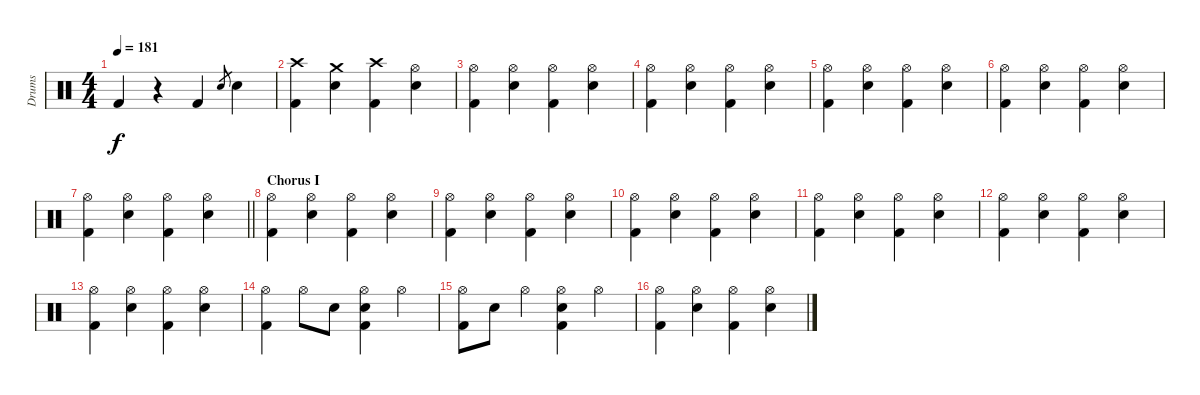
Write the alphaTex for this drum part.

\track ("Drums" "Drums") {instrument percussion}
\staff {score}
\articulation defaults
\ts (4 4)
\tempo 181
\clef neutral
\ks c "Kick (hit) 2".4{dy f}
r.4 "Kick (hit) 2".4 "Snare (hit) 2".8{gr} "Snare (hit) 2".4 |
("Crash high (hit)" "Kick (hit) 2").4 ("Crash medium (hit)" "Snare (hit) 2").4 ("Crash high (hit)" "Kick (hit) 2").4 ("Hi-Hat (open)" "Snare (hit) 2").4 |
("Hi-Hat (open)" "Kick (hit) 2").4 ("Hi-Hat (open)" "Snare (hit) 2").4 ("Hi-Hat (open)" "Kick (hit) 2").4 ("Hi-Hat (open)" "Snare (hit) 2").4 |
("Hi-Hat (open)" "Kick (hit) 2").4 ("Hi-Hat (open)" "Snare (hit) 2").4 ("Hi-Hat (open)" "Kick (hit) 2").4 ("Hi-Hat (open)" "Snare (hit) 2").4 |
("Hi-Hat (open)" "Kick (hit) 2").4 ("Hi-Hat (open)" "Snare (hit) 2").4 ("Hi-Hat (open)" "Kick (hit) 2").4 ("Hi-Hat (open)" "Snare (hit) 2").4 |
("Hi-Hat (open)" "Kick (hit) 2").4 ("Hi-Hat (open)" "Snare (hit) 2").4 ("Hi-Hat (open)" "Kick (hit) 2").4 ("Hi-Hat (open)" "Snare (hit) 2").4 |
\barLineRight lightlight
("Hi-Hat (open)" "Kick (hit) 2").4 ("Hi-Hat (open)" "Snare (hit) 2").4 ("Hi-Hat (open)" "Kick (hit) 2").4 ("Hi-Hat (open)" "Snare (hit) 2").4 |
\section ("" "Chorus I")
("Hi-Hat (open)" "Kick (hit) 2").4 ("Hi-Hat (open)" "Snare (hit) 2").4 ("Hi-Hat (open)" "Kick (hit) 2").4 ("Hi-Hat (open)" "Snare (hit) 2").4 |
("Hi-Hat (open)" "Kick (hit) 2").4 ("Hi-Hat (open)" "Snare (hit) 2").4 ("Hi-Hat (open)" "Kick (hit) 2").4 ("Hi-Hat (open)" "Snare (hit) 2").4 |
("Hi-Hat (open)" "Kick (hit) 2").4 ("Hi-Hat (open)" "Snare (hit) 2").4 ("Hi-Hat (open)" "Kick (hit) 2").4 ("Hi-Hat (open)" "Snare (hit) 2").4 |
("Hi-Hat (open)" "Kick (hit) 2").4 ("Hi-Hat (open)" "Snare (hit) 2").4 ("Hi-Hat (open)" "Kick (hit) 2").4 ("Hi-Hat (open)" "Snare (hit) 2").4 |
("Hi-Hat (open)" "Kick (hit) 2").4 ("Hi-Hat (open)" "Snare (hit) 2").4 ("Hi-Hat (open)" "Kick (hit) 2").4 ("Hi-Hat (open)" "Snare (hit) 2").4 |
("Hi-Hat (open)" "Kick (hit) 2").4 ("Hi-Hat (open)" "Snare (hit) 2").4 ("Hi-Hat (open)" "Kick (hit) 2").4 ("Hi-Hat (open)" "Snare (hit) 2").4 |
("Hi-Hat (open)" "Kick (hit) 2").4 "Hi-Hat (open)".8 "Snare (hit) 2".8 ("Hi-Hat (open)" "Snare (hit) 2" "Kick (hit) 2").4 "Hi-Hat (open)".4 |
("Hi-Hat (open)" "Kick (hit) 2").8 "Snare (hit) 2".8 "Hi-Hat (open)".4 ("Hi-Hat (open)" "Snare (hit) 2" "Kick (hit) 2").4 "Hi-Hat (open)".4 |
("Hi-Hat (open)" "Kick (hit) 2").4 ("Hi-Hat (open)" "Snare (hit) 2").4 ("Hi-Hat (open)" "Kick (hit) 2").4 ("Hi-Hat (open)" "Snare (hit) 2").4
